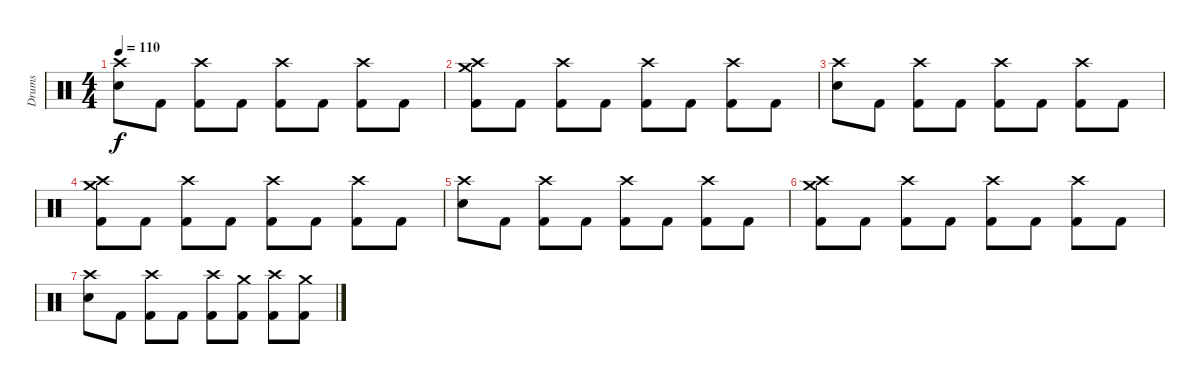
\track ("Drums" "Drums") {instrument percussion}
\staff {score}
\articulation defaults
\ts (4 4)
\tempo 110
\clef neutral
\ks c
("Crash high (hit)" "Electric Snare (hit)").8{dy f} "Kick (hit) 2".8 ("Crash high (hit)" "Kick (hit) 2").8 "Kick (hit) 2".8 ("Crash high (hit)" "Kick (hit) 2").8 "Kick (hit) 2".8 ("Crash high (hit)" "Kick (hit) 2").8 "Kick (hit) 2".8 |
("Crash medium (hit)" "Crash high (hit)" "Kick (hit) 2").8 "Kick (hit) 2".8 ("Crash high (hit)" "Kick (hit) 2").8 "Kick (hit) 2".8 ("Crash high (hit)" "Kick (hit) 2").8 "Kick (hit) 2".8 ("Crash high (hit)" "Kick (hit) 2").8 "Kick (hit) 2".8 |
("Crash high (hit)" "Electric Snare (hit)").8 "Kick (hit) 2".8 ("Crash high (hit)" "Kick (hit) 2").8 "Kick (hit) 2".8 ("Crash high (hit)" "Kick (hit) 2").8 "Kick (hit) 2".8 ("Crash high (hit)" "Kick (hit) 2").8 "Kick (hit) 2".8 |
("Crash medium (hit)" "Crash high (hit)" "Kick (hit) 2").8 "Kick (hit) 2".8 ("Crash high (hit)" "Kick (hit) 2").8 "Kick (hit) 2".8 ("Crash high (hit)" "Kick (hit) 2").8 "Kick (hit) 2".8 ("Crash high (hit)" "Kick (hit) 2").8 "Kick (hit) 2".8 |
("Crash high (hit)" "Electric Snare (hit)").8 "Kick (hit) 2".8 ("Crash high (hit)" "Kick (hit) 2").8 "Kick (hit) 2".8 ("Crash high (hit)" "Kick (hit) 2").8 "Kick (hit) 2".8 ("Crash high (hit)" "Kick (hit) 2").8 "Kick (hit) 2".8 |
("Crash medium (hit)" "Crash high (hit)" "Kick (hit) 2").8 "Kick (hit) 2".8 ("Crash high (hit)" "Kick (hit) 2").8 "Kick (hit) 2".8 ("Crash high (hit)" "Kick (hit) 2").8 "Kick (hit) 2".8 ("Crash high (hit)" "Kick (hit) 2").8 "Kick (hit) 2".8 |
("Crash high (hit)" "Electric Snare (hit)").8 "Kick (hit) 2".8 ("Crash high (hit)" "Kick (hit) 2").8 "Kick (hit) 2".8 ("Crash high (hit)" "Kick (hit) 2").8 ("Crash medium (hit)" "Kick (hit) 2").8 ("Crash high (hit)" "Kick (hit) 2").8 ("Crash medium (hit)" "Kick (hit) 2").8
